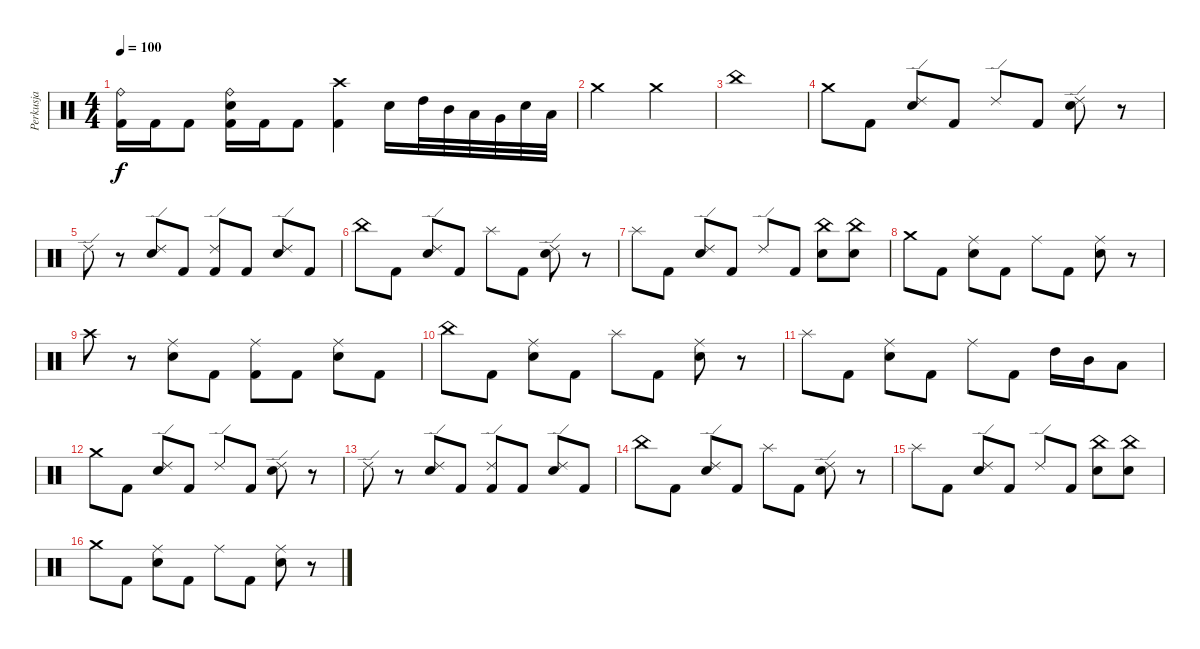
\track ("Perkusja" "Perkusja") {instrument percussion}
\staff {score}
\articulation defaults
\ts (4 4)
\tempo 100
\clef neutral
\ks c
("Ride (bell)" "Kick (hit) 2").16{dy f} "Kick (hit) 2".16 "Kick (hit) 2".8 ("Ride (bell)" "Electric Snare (hit)" "Kick (hit) 2").16 "Kick (hit) 2".16 "Kick (hit) 2".8 ("Crash high (hit)" "Kick (hit) 2").4 "Electric Snare (hit)".16 "High Tom (hit)".32 "Mid Tom (hit)".32 "Low Tom (hit)".32 "Very Low Tom (hit)".32 "Snare (hit)".32 "Low Floor Tom (hit)".32 |
"Crash medium (hit)".2 "Crash medium (hit)".2 |
"China (hit)".1 |
"Crash medium (hit)".8 "Kick (hit) 2".8 ("Ride (edge) 2" "Snare (hit) 2").8 "Kick (hit) 2".8 "Ride (edge) 2".8 "Kick (hit) 2".8 ("Ride (edge) 2" "Snare (hit) 2").8 r.8 |
"Ride (edge) 2".8 r.8 ("Ride (edge) 2" "Snare (hit) 2").8 "Kick (hit) 2".8 ("Ride (edge) 2" "Kick (hit) 2").8 "Kick (hit) 2".8 ("Ride (edge) 2" "Snare (hit) 2").8 "Kick (hit) 2".8 |
"China (hit)".8 "Kick (hit) 2".8 ("Ride (edge) 2" "Snare (hit) 2").8 "Kick (hit) 2".8 "Splash (hit)".8 "Kick (hit) 2".8 ("Ride (edge) 2" "Snare (hit) 2").8 r.8 |
"Splash (hit)".8 "Kick (hit) 2".8 ("Ride (edge) 2" "Snare (hit) 2").8 "Kick (hit) 2".8 "Ride (edge) 2".8 "Kick (hit) 2".8 ("China (hit)" "Snare (hit) 2").8 ("China (hit)" "Snare (hit) 2").8 |
"Crash medium (hit)".8 "Kick (hit) 2".8 ("Ride (middle)" "Snare (hit) 2").8 "Kick (hit) 2".8 "Ride (middle)".8 "Kick (hit) 2".8 ("Ride (middle)" "Snare (hit) 2").8 r.8 |
"Crash high (hit)".8 r.8 ("Ride (middle)" "Snare (hit) 2").8 "Kick (hit) 2".8 ("Ride (middle)" "Kick (hit) 2").8 "Kick (hit) 2".8 ("Ride (middle)" "Snare (hit) 2").8 "Kick (hit) 2".8 |
"China (hit)".8 "Kick (hit) 2".8 ("Ride (middle)" "Snare (hit) 2").8 "Kick (hit) 2".8 "Splash (hit)".8 "Kick (hit) 2".8 ("Ride (middle)" "Snare (hit) 2").8 r.8 |
"Splash (hit)".8 "Kick (hit) 2".8 ("Ride (middle)" "Snare (hit) 2").8 "Kick (hit) 2".8 "Ride (middle)".8 "Kick (hit) 2".8 "High Tom (hit)".16 "Mid Tom (hit)".16 "Low Tom (hit)".8 |
"Crash medium (hit)".8 "Kick (hit) 2".8 ("Ride (edge) 2" "Snare (hit) 2").8 "Kick (hit) 2".8 "Ride (edge) 2".8 "Kick (hit) 2".8 ("Ride (edge) 2" "Snare (hit) 2").8 r.8 |
"Ride (edge) 2".8 r.8 ("Ride (edge) 2" "Snare (hit) 2").8 "Kick (hit) 2".8 ("Ride (edge) 2" "Kick (hit) 2").8 "Kick (hit) 2".8 ("Ride (edge) 2" "Snare (hit) 2").8 "Kick (hit) 2".8 |
"China (hit)".8 "Kick (hit) 2".8 ("Ride (edge) 2" "Snare (hit) 2").8 "Kick (hit) 2".8 "Splash (hit)".8 "Kick (hit) 2".8 ("Ride (edge) 2" "Snare (hit) 2").8 r.8 |
"Splash (hit)".8 "Kick (hit) 2".8 ("Ride (edge) 2" "Snare (hit) 2").8 "Kick (hit) 2".8 "Ride (edge) 2".8 "Kick (hit) 2".8 ("China (hit)" "Snare (hit) 2").8 ("China (hit)" "Snare (hit) 2").8 |
"Crash medium (hit)".8 "Kick (hit) 2".8 ("Ride (middle)" "Snare (hit) 2").8 "Kick (hit) 2".8 "Ride (middle)".8 "Kick (hit) 2".8 ("Ride (middle)" "Snare (hit) 2").8 r.8
